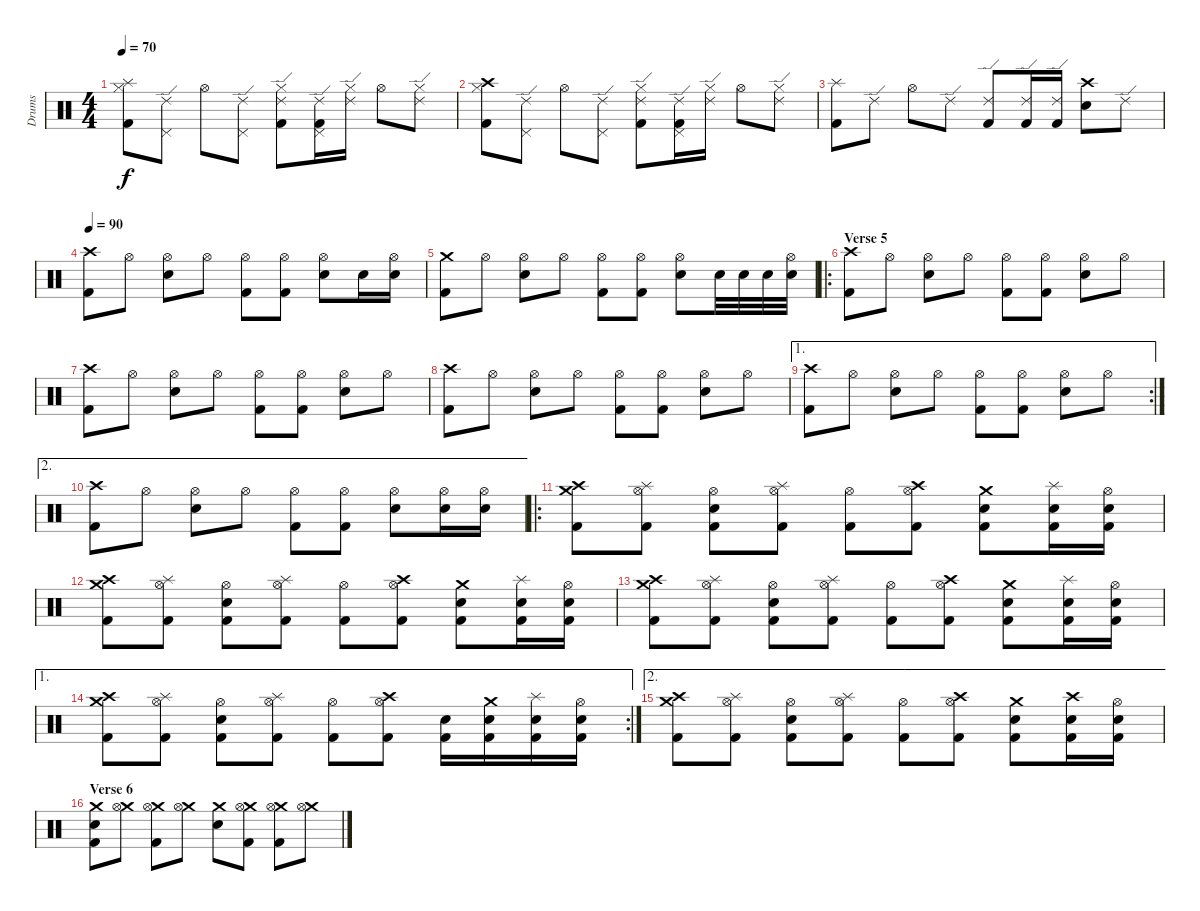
\track ("Drums" "Drums") {instrument percussion}
\staff {score}
\articulation defaults
\ts (4 4)
\tempo 70
\clef neutral
\ks c
("Splash (hit)" "Hi-Hat (closed)" "Kick (hit) 2").8{dy f} ("Ride (edge) 2" "Pedal Hi-Hat (hit)").8 "Hi-Hat (open)".8 ("Ride (edge) 2" "Pedal Hi-Hat (hit)").8 ("Ride (edge) 2" "Hi-Hat (closed)" "Kick (hit) 2").8 ("Ride (edge) 2" "Pedal Hi-Hat (hit)" "Kick (hit) 2").16 ("Ride (edge) 2" "Hi-Hat (closed)").16 "Hi-Hat (open)".8 ("Ride (edge) 2" "Hi-Hat (closed)").8 |
("Crash high (hit)" "Hi-Hat (closed)" "Kick (hit) 2").8 ("Ride (edge) 2" "Pedal Hi-Hat (hit)").8 "Hi-Hat (open)".8 ("Ride (edge) 2" "Pedal Hi-Hat (hit)").8 ("Ride (edge) 2" "Hi-Hat (closed)" "Kick (hit) 2").8 ("Ride (edge) 2" "Pedal Hi-Hat (hit)" "Kick (hit) 2").16 ("Ride (edge) 2" "Hi-Hat (closed)").16 "Hi-Hat (open)".8 ("Ride (edge) 2" "Hi-Hat (closed)").8 |
("Splash (hit)" "Kick (hit) 2").8 "Ride (edge) 2".8 "Hi-Hat (open)".8 "Ride (edge) 2".8 ("Ride (edge) 2" "Kick (hit) 2").8 ("Ride (edge) 2" "Kick (hit) 2").16 ("Ride (edge) 2" "Kick (hit) 2").16 ("Crash high (hit)" "Electric Snare (hit)").8 "Ride (edge) 2".8 |
\tempo 90
("Crash high (hit)" "Kick (hit) 2").8 "Hi-Hat (open)".8 ("Hi-Hat (open)" "Electric Snare (hit)").8 "Hi-Hat (open)".8 ("Hi-Hat (open)" "Kick (hit) 2").8 ("Hi-Hat (open)" "Kick (hit) 2").8 ("Hi-Hat (open)" "Electric Snare (hit)").8 "Electric Snare (hit)".16 ("Hi-Hat (open)" "Electric Snare (hit)").16 |
("Crash medium (hit)" "Kick (hit) 2").8 "Hi-Hat (open)".8 ("Hi-Hat (open)" "Electric Snare (hit)").8 "Hi-Hat (open)".8 ("Hi-Hat (open)" "Kick (hit) 2").8 ("Hi-Hat (open)" "Kick (hit) 2").8 ("Hi-Hat (open)" "Electric Snare (hit)").8 "Electric Snare (hit)".32 "Electric Snare (hit)".32 "Electric Snare (hit)".32 ("Hi-Hat (open)" "Electric Snare (hit)").32 |
\ro
\section ("" "Verse 5")
("Crash high (hit)" "Kick (hit) 2").8 "Hi-Hat (open)".8 ("Hi-Hat (open)" "Electric Snare (hit)").8 "Hi-Hat (open)".8 ("Hi-Hat (open)" "Kick (hit) 2").8 ("Hi-Hat (open)" "Kick (hit) 2").8 ("Hi-Hat (open)" "Electric Snare (hit)").8 "Hi-Hat (open)".8 |
("Crash high (hit)" "Kick (hit) 2").8 "Hi-Hat (open)".8 ("Hi-Hat (open)" "Electric Snare (hit)").8 "Hi-Hat (open)".8 ("Hi-Hat (open)" "Kick (hit) 2").8 ("Hi-Hat (open)" "Kick (hit) 2").8 ("Hi-Hat (open)" "Electric Snare (hit)").8 "Hi-Hat (open)".8 |
("Crash high (hit)" "Kick (hit) 2").8 "Hi-Hat (open)".8 ("Hi-Hat (open)" "Electric Snare (hit)").8 "Hi-Hat (open)".8 ("Hi-Hat (open)" "Kick (hit) 2").8 ("Hi-Hat (open)" "Kick (hit) 2").8 ("Hi-Hat (open)" "Electric Snare (hit)").8 "Hi-Hat (open)".8 |
\ae 1
\rc 2
("Crash high (hit)" "Kick (hit) 2").8 "Hi-Hat (open)".8 ("Hi-Hat (open)" "Electric Snare (hit)").8 "Hi-Hat (open)".8 ("Hi-Hat (open)" "Kick (hit) 2").8 ("Hi-Hat (open)" "Kick (hit) 2").8 ("Hi-Hat (open)" "Electric Snare (hit)").8 "Hi-Hat (open)".8 |
\ae 2
("Crash high (hit)" "Kick (hit) 2").8 "Hi-Hat (open)".8 ("Hi-Hat (open)" "Electric Snare (hit)").8 "Hi-Hat (open)".8 ("Hi-Hat (open)" "Kick (hit) 2").8 ("Hi-Hat (open)" "Kick (hit) 2").8 ("Hi-Hat (open)" "Electric Snare (hit)").8 ("Hi-Hat (open)" "Electric Snare (hit)").16 ("Hi-Hat (open)" "Electric Snare (hit)").16 |
\ro
("Crash medium (hit)" "Crash high (hit)" "Kick (hit) 2").8 ("Splash (hit)" "Hi-Hat (open)" "Kick (hit) 2").8 ("Hi-Hat (open)" "Electric Snare (hit)" "Kick (hit) 2").8 ("Splash (hit)" "Hi-Hat (open)" "Kick (hit) 2").8 ("Hi-Hat (open)" "Kick (hit) 2").8 ("Crash high (hit)" "Hi-Hat (open)" "Kick (hit) 2").8 ("Crash medium (hit)" "Electric Snare (hit)" "Kick (hit) 2").8 ("Splash (hit)" "Electric Snare (hit)" "Kick (hit) 2").16 ("Hi-Hat (open)" "Electric Snare (hit)" "Kick (hit) 2").16 |
("Crash medium (hit)" "Crash high (hit)" "Kick (hit) 2").8 ("Splash (hit)" "Hi-Hat (open)" "Kick (hit) 2").8 ("Hi-Hat (open)" "Electric Snare (hit)" "Kick (hit) 2").8 ("Splash (hit)" "Hi-Hat (open)" "Kick (hit) 2").8 ("Hi-Hat (open)" "Kick (hit) 2").8 ("Crash high (hit)" "Hi-Hat (open)" "Kick (hit) 2").8 ("Crash medium (hit)" "Electric Snare (hit)" "Kick (hit) 2").8 ("Splash (hit)" "Electric Snare (hit)" "Kick (hit) 2").16 ("Hi-Hat (open)" "Electric Snare (hit)" "Kick (hit) 2").16 |
("Crash medium (hit)" "Crash high (hit)" "Kick (hit) 2").8 ("Splash (hit)" "Hi-Hat (open)" "Kick (hit) 2").8 ("Hi-Hat (open)" "Electric Snare (hit)" "Kick (hit) 2").8 ("Splash (hit)" "Hi-Hat (open)" "Kick (hit) 2").8 ("Hi-Hat (open)" "Kick (hit) 2").8 ("Crash high (hit)" "Hi-Hat (open)" "Kick (hit) 2").8 ("Crash medium (hit)" "Electric Snare (hit)" "Kick (hit) 2").8 ("Splash (hit)" "Electric Snare (hit)" "Kick (hit) 2").16 ("Hi-Hat (open)" "Electric Snare (hit)" "Kick (hit) 2").16 |
\ae 1
\rc 2
("Crash medium (hit)" "Crash high (hit)" "Kick (hit) 2").8 ("Splash (hit)" "Hi-Hat (open)" "Kick (hit) 2").8 ("Hi-Hat (open)" "Electric Snare (hit)" "Kick (hit) 2").8 ("Splash (hit)" "Hi-Hat (open)" "Kick (hit) 2").8 ("Hi-Hat (open)" "Kick (hit) 2").8 ("Crash high (hit)" "Hi-Hat (open)" "Kick (hit) 2").8 ("Electric Snare (hit)" "Kick (hit) 2").16 ("Crash medium (hit)" "Electric Snare (hit)" "Kick (hit) 2").16 ("Splash (hit)" "Electric Snare (hit)" "Kick (hit) 2").16 ("Hi-Hat (open)" "Electric Snare (hit)" "Kick (hit) 2").16 |
\ae 2
("Crash medium (hit)" "Crash high (hit)" "Kick (hit) 2").8 ("Splash (hit)" "Hi-Hat (open)" "Kick (hit) 2").8 ("Hi-Hat (open)" "Electric Snare (hit)" "Kick (hit) 2").8 ("Splash (hit)" "Hi-Hat (open)" "Kick (hit) 2").8 ("Hi-Hat (open)" "Kick (hit) 2").8 ("Crash high (hit)" "Hi-Hat (open)" "Kick (hit) 2").8 ("Crash medium (hit)" "Electric Snare (hit)" "Kick (hit) 2").8 ("Crash high (hit)" "Electric Snare (hit)" "Kick (hit) 2").16 ("Hi-Hat (open)" "Electric Snare (hit)" "Kick (hit) 2").16 |
\section ("" "Verse 6")
("Crash medium (hit)" "Electric Snare (hit)" "Kick (hit) 2").8 ("Crash medium (hit)" "Hi-Hat (open)").8 ("Crash medium (hit)" "Hi-Hat (open)" "Kick (hit) 2").8 ("Crash medium (hit)" "Hi-Hat (open)").8 ("Crash medium (hit)" "Electric Snare (hit)").8 ("Crash medium (hit)" "Hi-Hat (open)" "Kick (hit) 2").8 ("Crash medium (hit)" "Hi-Hat (open)" "Kick (hit) 2").8 ("Crash medium (hit)" "Hi-Hat (open)").8
